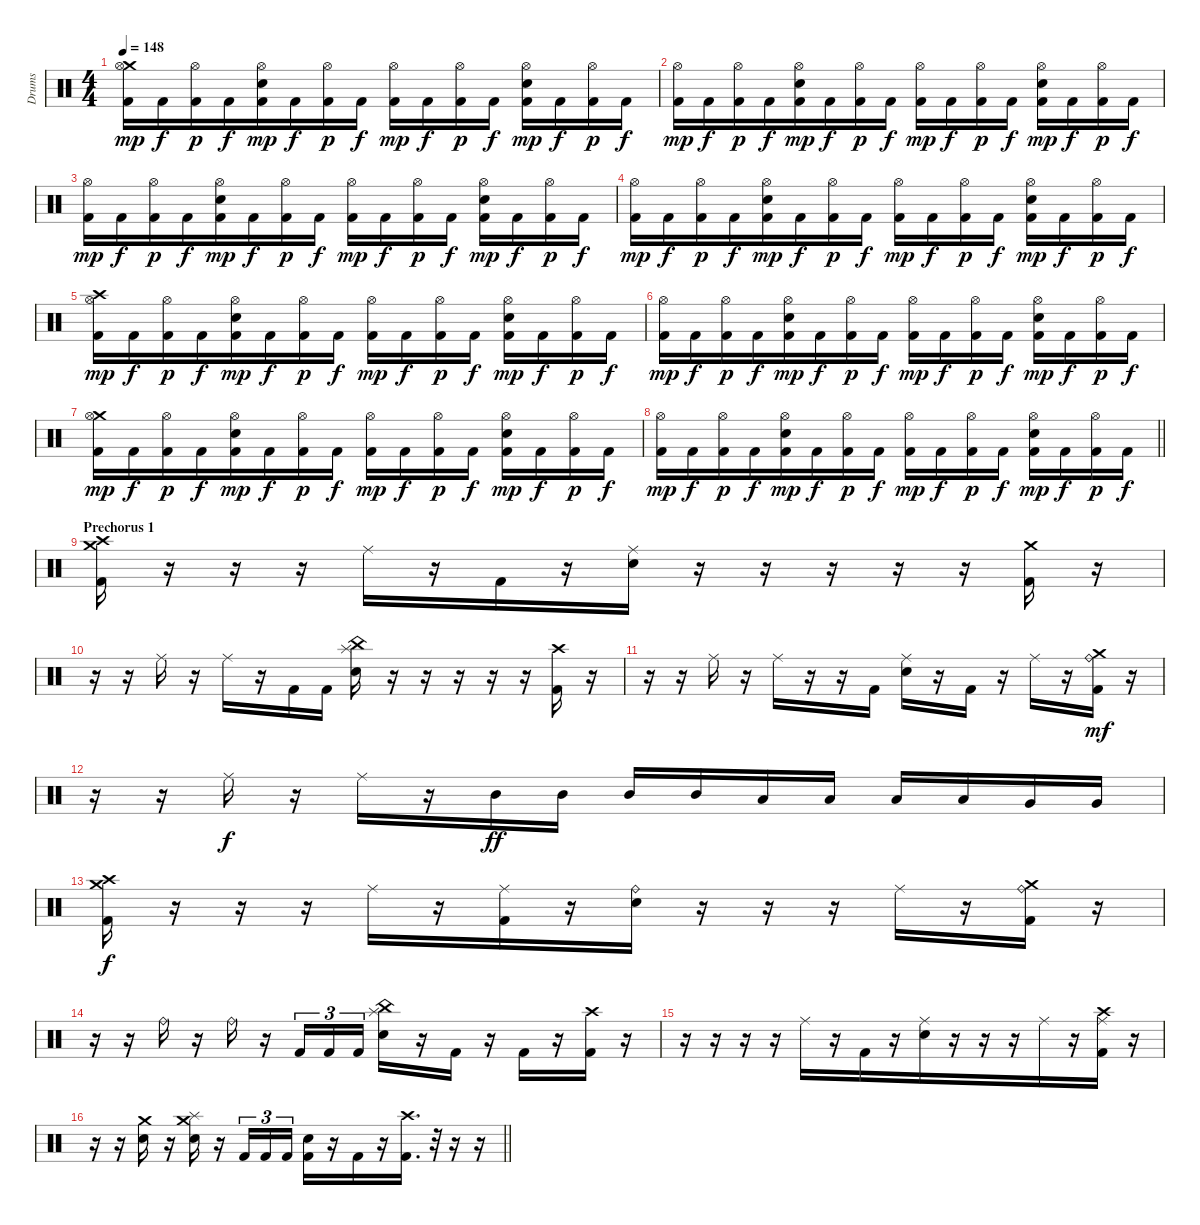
\track ("Drums" "Drums") {instrument percussion}
\staff {score}
\articulation defaults
\ts (4 4)
\tempo 148
\clef neutral
\ks c
("Crash medium (hit)" "Hi-Hat (open)" "Kick (hit) 2").16{dy mp beam merge} "Kick (hit) 2".16{dy f beam merge} ("Hi-Hat (open)" "Kick (hit) 2").16{dy p} "Kick (hit) 2".16{dy f beam merge} ("Hi-Hat (open)" "Snare (hit) 2" "Kick (hit) 2").16{dy mp} "Kick (hit) 2".16{dy f beam merge} ("Hi-Hat (open)" "Kick (hit) 2").16{dy p} "Kick (hit) 2".16{dy f} ("Hi-Hat (open)" "Kick (hit) 2").16{dy mp} "Kick (hit) 2".16{dy f beam merge} ("Hi-Hat (open)" "Kick (hit) 2").16{dy p beam merge} "Kick (hit) 2".16{dy f} ("Hi-Hat (open)" "Snare (hit) 2" "Kick (hit) 2").16{dy mp} "Kick (hit) 2".16{dy f} ("Hi-Hat (open)" "Kick (hit) 2").16{dy p} "Kick (hit) 2".16{dy f} |
("Hi-Hat (open)" "Kick (hit) 2").16{dy mp beam merge} "Kick (hit) 2".16{dy f beam merge} ("Hi-Hat (open)" "Kick (hit) 2").16{dy p} "Kick (hit) 2".16{dy f beam merge} ("Hi-Hat (open)" "Snare (hit) 2" "Kick (hit) 2").16{dy mp} "Kick (hit) 2".16{dy f beam merge} ("Hi-Hat (open)" "Kick (hit) 2").16{dy p} "Kick (hit) 2".16{dy f} ("Hi-Hat (open)" "Kick (hit) 2").16{dy mp} "Kick (hit) 2".16{dy f beam merge} ("Hi-Hat (open)" "Kick (hit) 2").16{dy p beam merge} "Kick (hit) 2".16{dy f} ("Hi-Hat (open)" "Snare (hit) 2" "Kick (hit) 2").16{dy mp} "Kick (hit) 2".16{dy f} ("Hi-Hat (open)" "Kick (hit) 2").16{dy p} "Kick (hit) 2".16{dy f} |
("Hi-Hat (open)" "Kick (hit) 2").16{dy mp beam merge} "Kick (hit) 2".16{dy f beam merge} ("Hi-Hat (open)" "Kick (hit) 2").16{dy p} "Kick (hit) 2".16{dy f beam merge} ("Hi-Hat (open)" "Snare (hit) 2" "Kick (hit) 2").16{dy mp} "Kick (hit) 2".16{dy f beam merge} ("Hi-Hat (open)" "Kick (hit) 2").16{dy p} "Kick (hit) 2".16{dy f} ("Hi-Hat (open)" "Kick (hit) 2").16{dy mp} "Kick (hit) 2".16{dy f beam merge} ("Hi-Hat (open)" "Kick (hit) 2").16{dy p beam merge} "Kick (hit) 2".16{dy f} ("Hi-Hat (open)" "Snare (hit) 2" "Kick (hit) 2").16{dy mp} "Kick (hit) 2".16{dy f} ("Hi-Hat (open)" "Kick (hit) 2").16{dy p} "Kick (hit) 2".16{dy f} |
("Hi-Hat (open)" "Kick (hit) 2").16{dy mp beam merge} "Kick (hit) 2".16{dy f beam merge} ("Hi-Hat (open)" "Kick (hit) 2").16{dy p} "Kick (hit) 2".16{dy f beam merge} ("Hi-Hat (open)" "Snare (hit) 2" "Kick (hit) 2").16{dy mp} "Kick (hit) 2".16{dy f beam merge} ("Hi-Hat (open)" "Kick (hit) 2").16{dy p} "Kick (hit) 2".16{dy f} ("Hi-Hat (open)" "Kick (hit) 2").16{dy mp} "Kick (hit) 2".16{dy f beam merge} ("Hi-Hat (open)" "Kick (hit) 2").16{dy p beam merge} "Kick (hit) 2".16{dy f} ("Hi-Hat (open)" "Snare (hit) 2" "Kick (hit) 2").16{dy mp} "Kick (hit) 2".16{dy f} ("Hi-Hat (open)" "Kick (hit) 2").16{dy p} "Kick (hit) 2".16{dy f} |
("Crash high (hit)" "Hi-Hat (open)" "Kick (hit) 2").16{dy mp beam merge} "Kick (hit) 2".16{dy f beam merge} ("Hi-Hat (open)" "Kick (hit) 2").16{dy p} "Kick (hit) 2".16{dy f beam merge} ("Hi-Hat (open)" "Snare (hit) 2" "Kick (hit) 2").16{dy mp} "Kick (hit) 2".16{dy f beam merge} ("Hi-Hat (open)" "Kick (hit) 2").16{dy p} "Kick (hit) 2".16{dy f} ("Hi-Hat (open)" "Kick (hit) 2").16{dy mp} "Kick (hit) 2".16{dy f beam merge} ("Hi-Hat (open)" "Kick (hit) 2").16{dy p beam merge} "Kick (hit) 2".16{dy f} ("Hi-Hat (open)" "Snare (hit) 2" "Kick (hit) 2").16{dy mp} "Kick (hit) 2".16{dy f} ("Hi-Hat (open)" "Kick (hit) 2").16{dy p} "Kick (hit) 2".16{dy f} |
("Hi-Hat (open)" "Kick (hit) 2").16{dy mp beam merge} "Kick (hit) 2".16{dy f beam merge} ("Hi-Hat (open)" "Kick (hit) 2").16{dy p} "Kick (hit) 2".16{dy f beam merge} ("Hi-Hat (open)" "Snare (hit) 2" "Kick (hit) 2").16{dy mp} "Kick (hit) 2".16{dy f beam merge} ("Hi-Hat (open)" "Kick (hit) 2").16{dy p} "Kick (hit) 2".16{dy f} ("Hi-Hat (open)" "Kick (hit) 2").16{dy mp} "Kick (hit) 2".16{dy f beam merge} ("Hi-Hat (open)" "Kick (hit) 2").16{dy p beam merge} "Kick (hit) 2".16{dy f} ("Hi-Hat (open)" "Snare (hit) 2" "Kick (hit) 2").16{dy mp} "Kick (hit) 2".16{dy f} ("Hi-Hat (open)" "Kick (hit) 2").16{dy p} "Kick (hit) 2".16{dy f} |
("Crash medium (hit)" "Hi-Hat (open)" "Kick (hit) 2").16{dy mp beam merge} "Kick (hit) 2".16{dy f beam merge} ("Hi-Hat (open)" "Kick (hit) 2").16{dy p} "Kick (hit) 2".16{dy f beam merge} ("Hi-Hat (open)" "Snare (hit) 2" "Kick (hit) 2").16{dy mp} "Kick (hit) 2".16{dy f beam merge} ("Hi-Hat (open)" "Kick (hit) 2").16{dy p} "Kick (hit) 2".16{dy f} ("Hi-Hat (open)" "Kick (hit) 2").16{dy mp} "Kick (hit) 2".16{dy f beam merge} ("Hi-Hat (open)" "Kick (hit) 2").16{dy p beam merge} "Kick (hit) 2".16{dy f} ("Hi-Hat (open)" "Snare (hit) 2" "Kick (hit) 2").16{dy mp} "Kick (hit) 2".16{dy f} ("Hi-Hat (open)" "Kick (hit) 2").16{dy p} "Kick (hit) 2".16{dy f} |
\barLineRight lightlight
("Hi-Hat (open)" "Kick (hit) 2").16{dy mp beam merge} "Kick (hit) 2".16{dy f beam merge} ("Hi-Hat (open)" "Kick (hit) 2").16{dy p} "Kick (hit) 2".16{dy f beam merge} ("Hi-Hat (open)" "Snare (hit) 2" "Kick (hit) 2").16{dy mp} "Kick (hit) 2".16{dy f beam merge} ("Hi-Hat (open)" "Kick (hit) 2").16{dy p} "Kick (hit) 2".16{dy f} ("Hi-Hat (open)" "Kick (hit) 2").16{dy mp} "Kick (hit) 2".16{dy f beam merge} ("Hi-Hat (open)" "Kick (hit) 2").16{dy p beam merge} "Kick (hit) 2".16{dy f} ("Hi-Hat (open)" "Snare (hit) 2" "Kick (hit) 2").16{dy mp} "Kick (hit) 2".16{dy f} ("Hi-Hat (open)" "Kick (hit) 2").16{dy p} "Kick (hit) 2".16{dy f} |
\section ("" "Prechorus 1")
("Crash medium (hit)" "Crash high (hit)" "Kick (hit) 2").16 r.16 r.16 r.16 "Ride (middle)".16 r.16 "Kick (hit) 2".16{beam merge} r.16{beam merge} ("Ride (middle)" "Snare (hit) 2").16 r.16{beam merge} r.16 r.16{beam merge} r.16 r.16 ("Crash medium (hit)" "Kick (hit) 2").16{beam merge} r.16 |
r.16 r.16{beam merge} "Ride (middle)".16 r.16 "Ride (middle)".16 r.16 "Kick (hit) 2".16 "Kick (hit) 2".16 ("China (hit)" "Splash (hit)" "Snare (hit) 2").16 r.16 r.16 r.16 r.16 r.16 ("Crash high (hit)" "Kick (hit) 2").16 r.16 |
r.16 r.16{beam merge} "Ride (middle)".16 r.16 "Ride (middle)".16 r.16 r.16 "Kick (hit) 2".16 ("Ride (middle)" "Snare (hit) 2").16 r.16 "Kick (hit) 2".16 r.16 "Ride (middle)".16 r.16 ("Crash medium (hit)" "Ride (bell)" "Kick (hit) 2").16{dy mf} r.16 |
r.16 r.16{beam merge} "Ride (middle)".16{dy f} r.16 "Ride (middle)".16 r.16 "Mid Tom (hit)".16{dy ff} "Mid Tom (hit)".16 "Mid Tom (hit)".16 "Mid Tom (hit)".16 "Low Tom (hit)".16 "Low Tom (hit)".16 "Low Tom (hit)".16 "Low Tom (hit)".16 "Very Low Tom (hit)".16 "Very Low Tom (hit)".16 |
("Crash medium (hit)" "Crash high (hit)" "Kick (hit) 2").16{dy f} r.16 r.16 r.16 "Ride (middle)".16 r.16 ("Ride (middle)" "Kick (hit) 2").16{beam merge} r.16{beam merge} ("Ride (bell)" "Snare (hit) 2").16 r.16{beam merge} r.16 r.16{beam merge} "Ride (middle)".16 r.16 ("Crash medium (hit)" "Ride (bell)" "Kick (hit) 2").16{beam merge} r.16 |
r.16 r.16{beam merge} "Ride (bell)".16 r.16 "Ride (bell)".16 r.16 "Kick (hit) 2".16{tu (3 2)} "Kick (hit) 2".16{tu (3 2)} "Kick (hit) 2".16{tu (3 2)} ("China (hit)" "Splash (hit)" "Snare (hit) 2").16 r.16 "Kick (hit) 2".16 r.16 "Kick (hit) 2".16 r.16 ("Crash high (hit)" "Kick (hit) 2").16 r.16 |
r.16 r.16{beam merge} r.16 r.16 "Ride (middle)".16 r.16{beam merge} "Kick (hit) 2".16{beam merge} r.16 ("Ride (middle)" "Snare (hit) 2").16{beam merge} r.16{beam merge} r.16 r.16{beam merge} "Ride (middle)".16 r.16{beam merge} ("Crash high (hit)" "Ride (middle)" "Kick (hit) 2").16{beam merge} r.16 |
\barLineRight lightlight
r.16 r.16 ("Crash medium (hit)" "Snare (hit) 2").16 r.16{beam merge} ("Crash medium (hit)" "Splash (hit)" "Snare (hit) 2").16 r.16 "Kick (hit) 2".16{tu (3 2)} "Kick (hit) 2".16{tu (3 2)} "Kick (hit) 2".16{tu (3 2)} ("Snare (hit) 2" "Kick (hit) 2").16 r.16 "Kick (hit) 2".16{beam merge} r.16 ("Crash high (hit)" "Kick (hit) 2").16{d beam merge} r.32{volume 0 beam merge} r.16{beam merge} r.16
